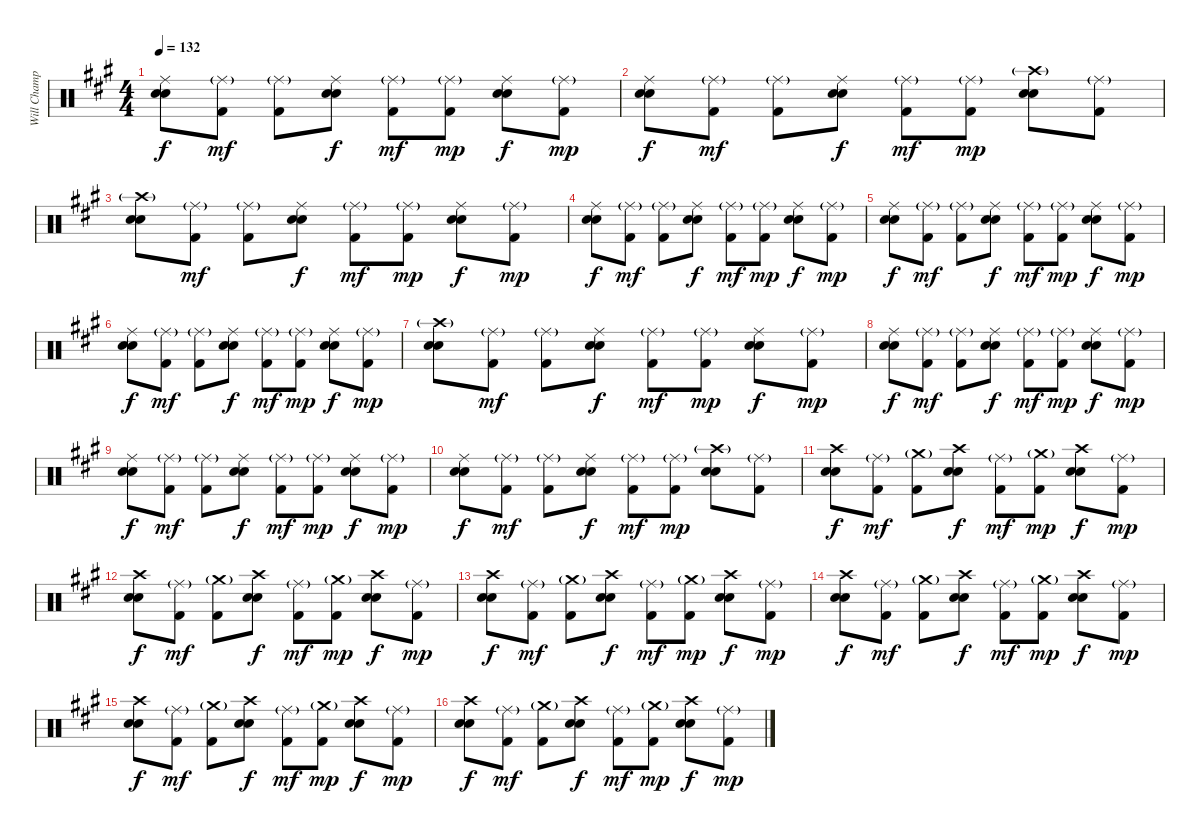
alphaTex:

\track ("Will Champion-Drums(percussion)" "Will Champ") {instrument percussion}
\staff {score}
\articulation defaults
\ts (4 4)
\tempo 132
\clef neutral
\ks a
("Ride (middle)" "Electric Snare (hit)" "Snare (hit) 2").8{dy f} ("Ride (middle)"{g} "Kick (hit) 2").8{dy mf} ("Ride (middle)"{g} "Kick (hit) 2").8 ("Ride (middle)" "Electric Snare (hit)" "Snare (hit) 2").8{dy f} ("Ride (middle)"{g} "Kick (hit) 2").8{dy mf} ("Ride (middle)"{g} "Kick (hit) 2").8{dy mp} ("Ride (middle)" "Electric Snare (hit)" "Snare (hit) 2").8{dy f} ("Ride (middle)"{g} "Kick (hit) 2").8{dy mp} |
("Ride (middle)" "Electric Snare (hit)" "Snare (hit) 2").8{dy f} ("Ride (middle)"{g} "Kick (hit) 2").8{dy mf} ("Ride (middle)"{g} "Kick (hit) 2").8 ("Ride (middle)" "Electric Snare (hit)" "Snare (hit) 2").8{dy f} ("Ride (middle)"{g} "Kick (hit) 2").8{dy mf} ("Ride (middle)"{g} "Kick (hit) 2").8{dy mp} ("Crash high (hit)"{g} "Electric Snare (hit)" "Snare (hit) 2").8 ("Ride (middle)"{g} "Kick (hit) 2").8 |
("Crash high (hit)"{g} "Electric Snare (hit)" "Snare (hit) 2").8 ("Ride (middle)"{g} "Kick (hit) 2").8{dy mf} ("Ride (middle)"{g} "Kick (hit) 2").8 ("Ride (middle)" "Electric Snare (hit)" "Snare (hit) 2").8{dy f} ("Ride (middle)"{g} "Kick (hit) 2").8{dy mf} ("Ride (middle)"{g} "Kick (hit) 2").8{dy mp} ("Ride (middle)" "Electric Snare (hit)" "Snare (hit) 2").8{dy f} ("Ride (middle)"{g} "Kick (hit) 2").8{dy mp} |
("Ride (middle)" "Electric Snare (hit)" "Snare (hit) 2").8{dy f} ("Ride (middle)"{g} "Kick (hit) 2").8{dy mf} ("Ride (middle)"{g} "Kick (hit) 2").8 ("Ride (middle)" "Electric Snare (hit)" "Snare (hit) 2").8{dy f} ("Ride (middle)"{g} "Kick (hit) 2").8{dy mf} ("Ride (middle)"{g} "Kick (hit) 2").8{dy mp} ("Ride (middle)" "Electric Snare (hit)" "Snare (hit) 2").8{dy f} ("Ride (middle)"{g} "Kick (hit) 2").8{dy mp} |
("Ride (middle)" "Electric Snare (hit)" "Snare (hit) 2").8{dy f} ("Ride (middle)"{g} "Kick (hit) 2").8{dy mf} ("Ride (middle)"{g} "Kick (hit) 2").8 ("Ride (middle)" "Electric Snare (hit)" "Snare (hit) 2").8{dy f} ("Ride (middle)"{g} "Kick (hit) 2").8{dy mf} ("Ride (middle)"{g} "Kick (hit) 2").8{dy mp} ("Ride (middle)" "Electric Snare (hit)" "Snare (hit) 2").8{dy f} ("Ride (middle)"{g} "Kick (hit) 2").8{dy mp} |
("Ride (middle)" "Electric Snare (hit)" "Snare (hit) 2").8{dy f} ("Ride (middle)"{g} "Kick (hit) 2").8{dy mf} ("Ride (middle)"{g} "Kick (hit) 2").8 ("Ride (middle)" "Electric Snare (hit)" "Snare (hit) 2").8{dy f} ("Ride (middle)"{g} "Kick (hit) 2").8{dy mf} ("Ride (middle)"{g} "Kick (hit) 2").8{dy mp} ("Ride (middle)" "Electric Snare (hit)" "Snare (hit) 2").8{dy f} ("Ride (middle)"{g} "Kick (hit) 2").8{dy mp} |
("Crash high (hit)"{g} "Electric Snare (hit)" "Snare (hit) 2").8 ("Ride (middle)"{g} "Kick (hit) 2").8{dy mf} ("Ride (middle)"{g} "Kick (hit) 2").8 ("Ride (middle)" "Electric Snare (hit)" "Snare (hit) 2").8{dy f} ("Ride (middle)"{g} "Kick (hit) 2").8{dy mf} ("Ride (middle)"{g} "Kick (hit) 2").8{dy mp} ("Ride (middle)" "Electric Snare (hit)" "Snare (hit) 2").8{dy f} ("Ride (middle)"{g} "Kick (hit) 2").8{dy mp} |
("Ride (middle)" "Electric Snare (hit)" "Snare (hit) 2").8{dy f} ("Ride (middle)"{g} "Kick (hit) 2").8{dy mf} ("Ride (middle)"{g} "Kick (hit) 2").8 ("Ride (middle)" "Electric Snare (hit)" "Snare (hit) 2").8{dy f} ("Ride (middle)"{g} "Kick (hit) 2").8{dy mf} ("Ride (middle)"{g} "Kick (hit) 2").8{dy mp} ("Ride (middle)" "Electric Snare (hit)" "Snare (hit) 2").8{dy f} ("Ride (middle)"{g} "Kick (hit) 2").8{dy mp} |
("Ride (middle)" "Electric Snare (hit)" "Snare (hit) 2").8{dy f} ("Ride (middle)"{g} "Kick (hit) 2").8{dy mf} ("Ride (middle)"{g} "Kick (hit) 2").8 ("Ride (middle)" "Electric Snare (hit)" "Snare (hit) 2").8{dy f} ("Ride (middle)"{g} "Kick (hit) 2").8{dy mf} ("Ride (middle)"{g} "Kick (hit) 2").8{dy mp} ("Ride (middle)" "Electric Snare (hit)" "Snare (hit) 2").8{dy f} ("Ride (middle)"{g} "Kick (hit) 2").8{dy mp} |
("Ride (middle)" "Electric Snare (hit)" "Snare (hit) 2").8{dy f} ("Ride (middle)"{g} "Kick (hit) 2").8{dy mf} ("Ride (middle)"{g} "Kick (hit) 2").8 ("Ride (middle)" "Electric Snare (hit)" "Snare (hit) 2").8{dy f} ("Ride (middle)"{g} "Kick (hit) 2").8{dy mf} ("Ride (middle)"{g} "Kick (hit) 2").8{dy mp} ("Crash high (hit)"{g} "Electric Snare (hit)" "Snare (hit) 2").8 ("Ride (middle)"{g} "Kick (hit) 2").8 |
("Crash high (hit)" "Electric Snare (hit)" "Snare (hit) 2").8{dy f} ("Ride (middle)"{g} "Kick (hit) 2").8{dy mf} ("Crash medium (hit)"{g} "Kick (hit) 2").8 ("Crash high (hit)" "Electric Snare (hit)" "Snare (hit) 2").8{dy f} ("Ride (middle)"{g} "Kick (hit) 2").8{dy mf} ("Crash medium (hit)"{g} "Kick (hit) 2").8{dy mp} ("Crash high (hit)" "Electric Snare (hit)" "Snare (hit) 2").8{dy f} ("Ride (middle)"{g} "Kick (hit) 2").8{dy mp} |
("Crash high (hit)" "Electric Snare (hit)" "Snare (hit) 2").8{dy f} ("Ride (middle)"{g} "Kick (hit) 2").8{dy mf} ("Crash medium (hit)"{g} "Kick (hit) 2").8 ("Crash high (hit)" "Electric Snare (hit)" "Snare (hit) 2").8{dy f} ("Ride (middle)"{g} "Kick (hit) 2").8{dy mf} ("Crash medium (hit)"{g} "Kick (hit) 2").8{dy mp} ("Crash high (hit)" "Electric Snare (hit)" "Snare (hit) 2").8{dy f} ("Ride (middle)"{g} "Kick (hit) 2").8{dy mp} |
("Crash high (hit)" "Electric Snare (hit)" "Snare (hit) 2").8{dy f} ("Ride (middle)"{g} "Kick (hit) 2").8{dy mf} ("Crash medium (hit)"{g} "Kick (hit) 2").8 ("Crash high (hit)" "Electric Snare (hit)" "Snare (hit) 2").8{dy f} ("Ride (middle)"{g} "Kick (hit) 2").8{dy mf} ("Crash medium (hit)"{g} "Kick (hit) 2").8{dy mp} ("Crash high (hit)" "Electric Snare (hit)" "Snare (hit) 2").8{dy f} ("Ride (middle)"{g} "Kick (hit) 2").8{dy mp} |
("Crash high (hit)" "Electric Snare (hit)" "Snare (hit) 2").8{dy f} ("Ride (middle)"{g} "Kick (hit) 2").8{dy mf} ("Crash medium (hit)"{g} "Kick (hit) 2").8 ("Crash high (hit)" "Electric Snare (hit)" "Snare (hit) 2").8{dy f} ("Ride (middle)"{g} "Kick (hit) 2").8{dy mf} ("Crash medium (hit)"{g} "Kick (hit) 2").8{dy mp} ("Crash high (hit)" "Electric Snare (hit)" "Snare (hit) 2").8{dy f} ("Ride (middle)"{g} "Kick (hit) 2").8{dy mp} |
("Crash high (hit)" "Electric Snare (hit)" "Snare (hit) 2").8{dy f} ("Ride (middle)"{g} "Kick (hit) 2").8{dy mf} ("Crash medium (hit)"{g} "Kick (hit) 2").8 ("Crash high (hit)" "Electric Snare (hit)" "Snare (hit) 2").8{dy f} ("Ride (middle)"{g} "Kick (hit) 2").8{dy mf} ("Crash medium (hit)"{g} "Kick (hit) 2").8{dy mp} ("Crash high (hit)" "Electric Snare (hit)" "Snare (hit) 2").8{dy f} ("Ride (middle)"{g} "Kick (hit) 2").8{dy mp} |
("Crash high (hit)" "Electric Snare (hit)" "Snare (hit) 2").8{dy f} ("Ride (middle)"{g} "Kick (hit) 2").8{dy mf} ("Crash medium (hit)"{g} "Kick (hit) 2").8 ("Crash high (hit)" "Electric Snare (hit)" "Snare (hit) 2").8{dy f} ("Ride (middle)"{g} "Kick (hit) 2").8{dy mf} ("Crash medium (hit)"{g} "Kick (hit) 2").8{dy mp} ("Crash high (hit)" "Electric Snare (hit)" "Snare (hit) 2").8{dy f} ("Ride (middle)"{g} "Kick (hit) 2").8{dy mp}
